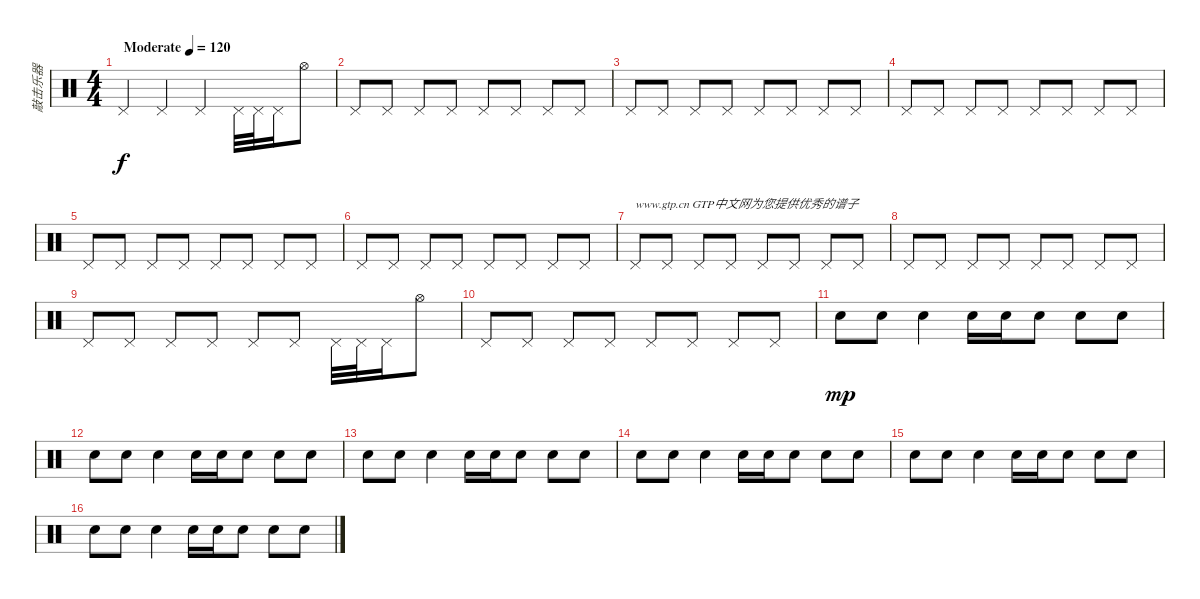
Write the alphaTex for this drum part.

\track ("敲击乐器" "敲击乐器") {instrument percussion}
\staff {score}
\articulation defaults
\ts (4 4)
\tempo (120 "Moderate")
\clef neutral
\ks c "Pedal Hi-Hat (hit)".4{dy f} "Pedal Hi-Hat (hit)".4 "Pedal Hi-Hat (hit)".4 "Pedal Hi-Hat (hit)".32 "Pedal Hi-Hat (hit)".32 "Pedal Hi-Hat (hit)".16 "Hi-Hat (open)".8
|
"Pedal Hi-Hat (hit)".8 "Pedal Hi-Hat (hit)".8 "Pedal Hi-Hat (hit)".8 "Pedal Hi-Hat (hit)".8 "Pedal Hi-Hat (hit)".8 "Pedal Hi-Hat (hit)".8 "Pedal Hi-Hat (hit)".8 "Pedal Hi-Hat (hit)".8 |
"Pedal Hi-Hat (hit)".8 "Pedal Hi-Hat (hit)".8 "Pedal Hi-Hat (hit)".8 "Pedal Hi-Hat (hit)".8 "Pedal Hi-Hat (hit)".8 "Pedal Hi-Hat (hit)".8 "Pedal Hi-Hat (hit)".8 "Pedal Hi-Hat (hit)".8 |
"Pedal Hi-Hat (hit)".8 "Pedal Hi-Hat (hit)".8 "Pedal Hi-Hat (hit)".8 "Pedal Hi-Hat (hit)".8 "Pedal Hi-Hat (hit)".8 "Pedal Hi-Hat (hit)".8 "Pedal Hi-Hat (hit)".8 "Pedal Hi-Hat (hit)".8 |
"Pedal Hi-Hat (hit)".8 "Pedal Hi-Hat (hit)".8 "Pedal Hi-Hat (hit)".8 "Pedal Hi-Hat (hit)".8 "Pedal Hi-Hat (hit)".8 "Pedal Hi-Hat (hit)".8 "Pedal Hi-Hat (hit)".8 "Pedal Hi-Hat (hit)".8 |
"Pedal Hi-Hat (hit)".8 "Pedal Hi-Hat (hit)".8 "Pedal Hi-Hat (hit)".8 "Pedal Hi-Hat (hit)".8 "Pedal Hi-Hat (hit)".8 "Pedal Hi-Hat (hit)".8 "Pedal Hi-Hat (hit)".8 "Pedal Hi-Hat (hit)".8 |
"Pedal Hi-Hat (hit)".8{txt "www.gtp.cn GTP中文网为您提供优秀的谱子"} "Pedal Hi-Hat (hit)".8 "Pedal Hi-Hat (hit)".8 "Pedal Hi-Hat (hit)".8 "Pedal Hi-Hat (hit)".8 "Pedal Hi-Hat (hit)".8 "Pedal Hi-Hat (hit)".8 "Pedal Hi-Hat (hit)".8 |
"Pedal Hi-Hat (hit)".8 "Pedal Hi-Hat (hit)".8 "Pedal Hi-Hat (hit)".8 "Pedal Hi-Hat (hit)".8 "Pedal Hi-Hat (hit)".8 "Pedal Hi-Hat (hit)".8 "Pedal Hi-Hat (hit)".8 "Pedal Hi-Hat (hit)".8 |
"Pedal Hi-Hat (hit)".8 "Pedal Hi-Hat (hit)".8 "Pedal Hi-Hat (hit)".8 "Pedal Hi-Hat (hit)".8 "Pedal Hi-Hat (hit)".8 "Pedal Hi-Hat (hit)".8 "Pedal Hi-Hat (hit)".32 "Pedal Hi-Hat (hit)".32 "Pedal Hi-Hat (hit)".16 "Hi-Hat (open)".8 |
"Pedal Hi-Hat (hit)".8 "Pedal Hi-Hat (hit)".8 "Pedal Hi-Hat (hit)".8 "Pedal Hi-Hat (hit)".8 "Pedal Hi-Hat (hit)".8 "Pedal Hi-Hat (hit)".8 "Pedal Hi-Hat (hit)".8 "Pedal Hi-Hat (hit)".8 |
"Hand Clap (hit)".8{dy mp} "Hand Clap (hit)".8 "Hand Clap (hit)".4 "Hand Clap (hit)".16 "Hand Clap (hit)".16 "Hand Clap (hit)".8 "Hand Clap (hit)".8 "Hand Clap (hit)".8 |
"Hand Clap (hit)".8 "Hand Clap (hit)".8 "Hand Clap (hit)".4 "Hand Clap (hit)".16 "Hand Clap (hit)".16 "Hand Clap (hit)".8 "Hand Clap (hit)".8 "Hand Clap (hit)".8 |
"Hand Clap (hit)".8 "Hand Clap (hit)".8 "Hand Clap (hit)".4 "Hand Clap (hit)".16 "Hand Clap (hit)".16 "Hand Clap (hit)".8 "Hand Clap (hit)".8 "Hand Clap (hit)".8 |
"Hand Clap (hit)".8 "Hand Clap (hit)".8 "Hand Clap (hit)".4 "Hand Clap (hit)".16 "Hand Clap (hit)".16 "Hand Clap (hit)".8 "Hand Clap (hit)".8 "Hand Clap (hit)".8 |
"Hand Clap (hit)".8 "Hand Clap (hit)".8 "Hand Clap (hit)".4 "Hand Clap (hit)".16 "Hand Clap (hit)".16 "Hand Clap (hit)".8 "Hand Clap (hit)".8 "Hand Clap (hit)".8 |
"Hand Clap (hit)".8 "Hand Clap (hit)".8 "Hand Clap (hit)".4 "Hand Clap (hit)".16 "Hand Clap (hit)".16 "Hand Clap (hit)".8 "Hand Clap (hit)".8 "Hand Clap (hit)".8
